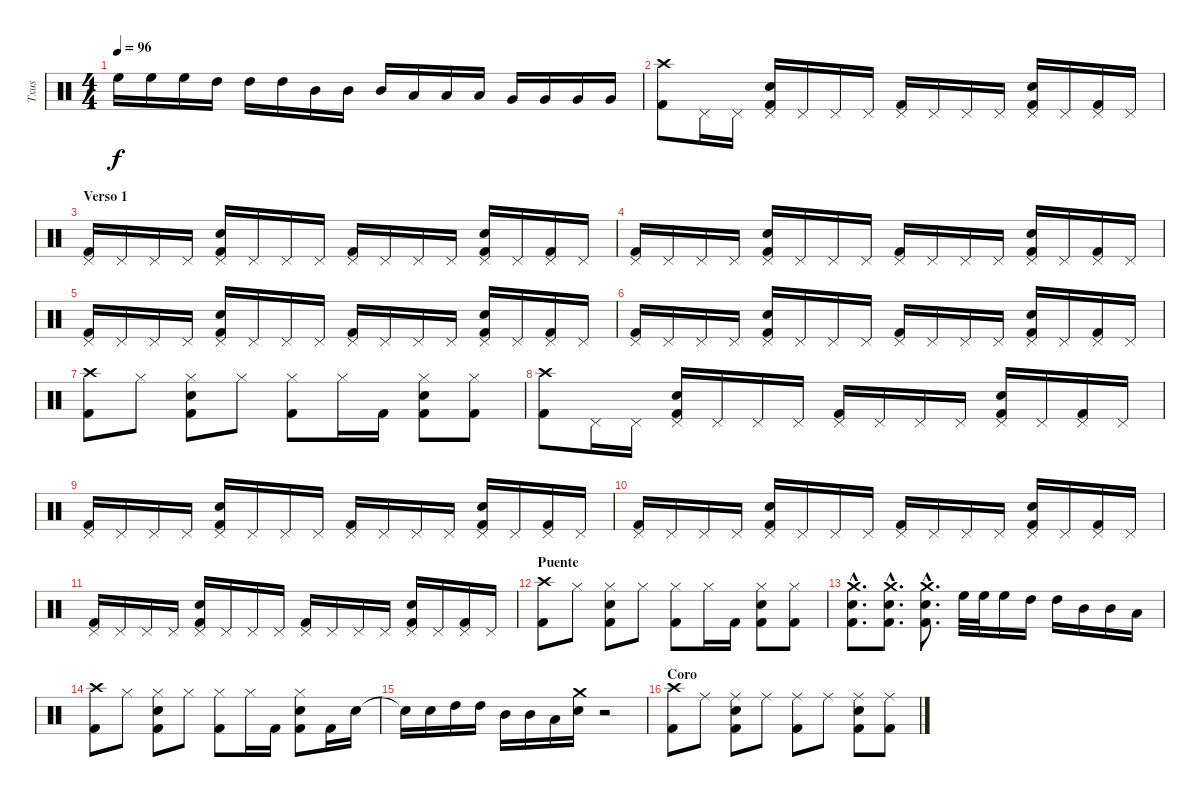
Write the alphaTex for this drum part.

\track ("Txus" "Txus") {instrument percussion}
\staff {score}
\articulation defaults
\ts (4 4)
\tempo 96
\clef neutral
\ks c "High Floor Tom (hit)".16{dy f} "High Floor Tom (hit)".16 "High Floor Tom (hit)".16 "High Tom (hit)".16 "High Tom (hit)".16 "High Tom (hit)".16 "Mid Tom (hit)".16 "Mid Tom (hit)".16 "Mid Tom (hit)".16 "Low Tom (hit)".16 "Low Tom (hit)".16 "Low Tom (hit)".16 "Very Low Tom (hit)".16 "Very Low Tom (hit)".16 "Very Low Tom (hit)".16 "Very Low Tom (hit)".16
|
("Kick (hit) 2" "Crash high (hit)").8 "Pedal Hi-Hat (hit)".16 "Pedal Hi-Hat (hit)".16 ("Kick (hit) 2" "Electric Snare (hit)" "Pedal Hi-Hat (hit)").16 "Pedal Hi-Hat (hit)".16 "Pedal Hi-Hat (hit)".16 "Pedal Hi-Hat (hit)".16 ("Kick (hit) 2" "Pedal Hi-Hat (hit)").16 "Pedal Hi-Hat (hit)".16 "Pedal Hi-Hat (hit)".16 "Pedal Hi-Hat (hit)".16 ("Kick (hit) 2" "Electric Snare (hit)" "Pedal Hi-Hat (hit)").16 "Pedal Hi-Hat (hit)".16 ("Kick (hit) 2" "Pedal Hi-Hat (hit)").16 "Pedal Hi-Hat (hit)".16 |
\section ("" "Verso 1")
("Kick (hit) 2" "Pedal Hi-Hat (hit)").16 "Pedal Hi-Hat (hit)".16 "Pedal Hi-Hat (hit)".16 "Pedal Hi-Hat (hit)".16 ("Kick (hit) 2" "Electric Snare (hit)" "Pedal Hi-Hat (hit)").16 "Pedal Hi-Hat (hit)".16 "Pedal Hi-Hat (hit)".16 "Pedal Hi-Hat (hit)".16 ("Kick (hit) 2" "Pedal Hi-Hat (hit)").16 "Pedal Hi-Hat (hit)".16 "Pedal Hi-Hat (hit)".16 "Pedal Hi-Hat (hit)".16 ("Kick (hit) 2" "Electric Snare (hit)" "Pedal Hi-Hat (hit)").16 "Pedal Hi-Hat (hit)".16 ("Kick (hit) 2" "Pedal Hi-Hat (hit)").16 "Pedal Hi-Hat (hit)".16 |
("Kick (hit) 2" "Pedal Hi-Hat (hit)").16 "Pedal Hi-Hat (hit)".16 "Pedal Hi-Hat (hit)".16 "Pedal Hi-Hat (hit)".16 ("Kick (hit) 2" "Electric Snare (hit)" "Pedal Hi-Hat (hit)").16 "Pedal Hi-Hat (hit)".16 "Pedal Hi-Hat (hit)".16 "Pedal Hi-Hat (hit)".16 ("Kick (hit) 2" "Pedal Hi-Hat (hit)").16 "Pedal Hi-Hat (hit)".16 "Pedal Hi-Hat (hit)".16 "Pedal Hi-Hat (hit)".16 ("Kick (hit) 2" "Electric Snare (hit)" "Pedal Hi-Hat (hit)").16 "Pedal Hi-Hat (hit)".16 ("Kick (hit) 2" "Pedal Hi-Hat (hit)").16 "Pedal Hi-Hat (hit)".16 |
("Kick (hit) 2" "Pedal Hi-Hat (hit)").16 "Pedal Hi-Hat (hit)".16 "Pedal Hi-Hat (hit)".16 "Pedal Hi-Hat (hit)".16 ("Kick (hit) 2" "Electric Snare (hit)" "Pedal Hi-Hat (hit)").16 "Pedal Hi-Hat (hit)".16 "Pedal Hi-Hat (hit)".16 "Pedal Hi-Hat (hit)".16 ("Kick (hit) 2" "Pedal Hi-Hat (hit)").16 "Pedal Hi-Hat (hit)".16 "Pedal Hi-Hat (hit)".16 "Pedal Hi-Hat (hit)".16 ("Kick (hit) 2" "Electric Snare (hit)" "Pedal Hi-Hat (hit)").16 "Pedal Hi-Hat (hit)".16 ("Kick (hit) 2" "Pedal Hi-Hat (hit)").16 "Pedal Hi-Hat (hit)".16 |
("Kick (hit) 2" "Pedal Hi-Hat (hit)").16 "Pedal Hi-Hat (hit)".16 "Pedal Hi-Hat (hit)".16 "Pedal Hi-Hat (hit)".16 ("Kick (hit) 2" "Electric Snare (hit)" "Pedal Hi-Hat (hit)").16 "Pedal Hi-Hat (hit)".16 "Pedal Hi-Hat (hit)".16 "Pedal Hi-Hat (hit)".16 ("Kick (hit) 2" "Pedal Hi-Hat (hit)").16 "Pedal Hi-Hat (hit)".16 "Pedal Hi-Hat (hit)".16 "Pedal Hi-Hat (hit)".16 ("Kick (hit) 2" "Electric Snare (hit)" "Pedal Hi-Hat (hit)").16 "Pedal Hi-Hat (hit)".16 ("Kick (hit) 2" "Pedal Hi-Hat (hit)").16 "Pedal Hi-Hat (hit)".16 |
("Kick (hit) 2" "Crash high (hit)").8 "Hi-Hat (closed)".8 ("Kick (hit) 2" "Electric Snare (hit)" "Hi-Hat (closed)").8 "Hi-Hat (closed)".8 ("Kick (hit) 2" "Hi-Hat (closed)").8 "Hi-Hat (closed)".16 "Kick (hit) 2".16 ("Kick (hit) 2" "Electric Snare (hit)" "Hi-Hat (closed)").8 ("Kick (hit) 2" "Hi-Hat (closed)").8 |
("Kick (hit) 2" "Crash high (hit)").8 "Pedal Hi-Hat (hit)".16 "Pedal Hi-Hat (hit)".16 ("Kick (hit) 2" "Electric Snare (hit)" "Pedal Hi-Hat (hit)").16 "Pedal Hi-Hat (hit)".16 "Pedal Hi-Hat (hit)".16 "Pedal Hi-Hat (hit)".16 ("Kick (hit) 2" "Pedal Hi-Hat (hit)").16 "Pedal Hi-Hat (hit)".16 "Pedal Hi-Hat (hit)".16 "Pedal Hi-Hat (hit)".16 ("Kick (hit) 2" "Electric Snare (hit)" "Pedal Hi-Hat (hit)").16 "Pedal Hi-Hat (hit)".16 ("Kick (hit) 2" "Pedal Hi-Hat (hit)").16 "Pedal Hi-Hat (hit)".16 |
("Kick (hit) 2" "Pedal Hi-Hat (hit)").16 "Pedal Hi-Hat (hit)".16 "Pedal Hi-Hat (hit)".16 "Pedal Hi-Hat (hit)".16 ("Kick (hit) 2" "Electric Snare (hit)" "Pedal Hi-Hat (hit)").16 "Pedal Hi-Hat (hit)".16 "Pedal Hi-Hat (hit)".16 "Pedal Hi-Hat (hit)".16 ("Kick (hit) 2" "Pedal Hi-Hat (hit)").16 "Pedal Hi-Hat (hit)".16 "Pedal Hi-Hat (hit)".16 "Pedal Hi-Hat (hit)".16 ("Kick (hit) 2" "Electric Snare (hit)" "Pedal Hi-Hat (hit)").16 "Pedal Hi-Hat (hit)".16 ("Kick (hit) 2" "Pedal Hi-Hat (hit)").16 "Pedal Hi-Hat (hit)".16 |
("Kick (hit) 2" "Pedal Hi-Hat (hit)").16 "Pedal Hi-Hat (hit)".16 "Pedal Hi-Hat (hit)".16 "Pedal Hi-Hat (hit)".16 ("Kick (hit) 2" "Electric Snare (hit)" "Pedal Hi-Hat (hit)").16 "Pedal Hi-Hat (hit)".16 "Pedal Hi-Hat (hit)".16 "Pedal Hi-Hat (hit)".16 ("Kick (hit) 2" "Pedal Hi-Hat (hit)").16 "Pedal Hi-Hat (hit)".16 "Pedal Hi-Hat (hit)".16 "Pedal Hi-Hat (hit)".16 ("Kick (hit) 2" "Electric Snare (hit)" "Pedal Hi-Hat (hit)").16 "Pedal Hi-Hat (hit)".16 ("Kick (hit) 2" "Pedal Hi-Hat (hit)").16 "Pedal Hi-Hat (hit)".16 |
("Kick (hit) 2" "Pedal Hi-Hat (hit)").16 "Pedal Hi-Hat (hit)".16 "Pedal Hi-Hat (hit)".16 "Pedal Hi-Hat (hit)".16 ("Kick (hit) 2" "Electric Snare (hit)" "Pedal Hi-Hat (hit)").16 "Pedal Hi-Hat (hit)".16 "Pedal Hi-Hat (hit)".16 "Pedal Hi-Hat (hit)".16 ("Kick (hit) 2" "Pedal Hi-Hat (hit)").16 "Pedal Hi-Hat (hit)".16 "Pedal Hi-Hat (hit)".16 "Pedal Hi-Hat (hit)".16 ("Kick (hit) 2" "Electric Snare (hit)" "Pedal Hi-Hat (hit)").16 "Pedal Hi-Hat (hit)".16 ("Kick (hit) 2" "Pedal Hi-Hat (hit)").16 "Pedal Hi-Hat (hit)".16 |
\section ("" "Puente")
("Kick (hit) 2" "Crash high (hit)").8 "Hi-Hat (closed)".8 ("Kick (hit) 2" "Electric Snare (hit)" "Hi-Hat (closed)").8 "Hi-Hat (closed)".8 ("Kick (hit) 2" "Hi-Hat (closed)").8 "Hi-Hat (closed)".16 "Kick (hit) 2".16 ("Kick (hit) 2" "Electric Snare (hit)" "Hi-Hat (closed)").8 ("Kick (hit) 2" "Hi-Hat (closed)").8 |
("Kick (hit) 2"{hac} "Electric Snare (hit)"{hac} "Crash medium (hit)"{hac}).8{d} ("Kick (hit) 2"{hac} "Electric Snare (hit)"{hac} "Crash medium (hit)"{hac}).8{d} ("Kick (hit) 2"{hac} "Electric Snare (hit)"{hac} "Crash medium (hit)"{hac}).8{d} "High Floor Tom (hit)".32 "High Floor Tom (hit)".32 "High Floor Tom (hit)".16 "High Tom (hit)".16 "High Tom (hit)".16 "Mid Tom (hit)".16 "Mid Tom (hit)".16 "Low Tom (hit)".16 |
("Kick (hit) 2" "Crash high (hit)").8 "Hi-Hat (closed)".8 ("Kick (hit) 2" "Electric Snare (hit)" "Hi-Hat (closed)").8 "Hi-Hat (closed)".8 ("Kick (hit) 2" "Hi-Hat (closed)").8 "Hi-Hat (closed)".16 "Kick (hit) 2".16 ("Kick (hit) 2" "Electric Snare (hit)" "Hi-Hat (closed)").8 "Kick (hit) 2".16 "Electric Snare (hit)".16 |
"Snare (hit)"{t}.16 "Electric Snare (hit)".16 "High Tom (hit)".16 "High Tom (hit)".16 "Mid Tom (hit)".16 "Mid Tom (hit)".16 "Low Tom (hit)".16 ("Electric Snare (hit)" "Crash medium (hit)").16 r.2 |
\section ("" "Coro")
("Kick (hit) 2" "Crash high (hit)").8 "Ride (middle)".8 ("Kick (hit) 2" "Electric Snare (hit)" "Ride (middle)").8 "Ride (middle)".8 ("Kick (hit) 2" "Ride (middle)").8 "Ride (middle)".8 ("Kick (hit) 2" "Electric Snare (hit)" "Ride (middle)").8 ("Kick (hit) 2" "Ride (middle)").8
